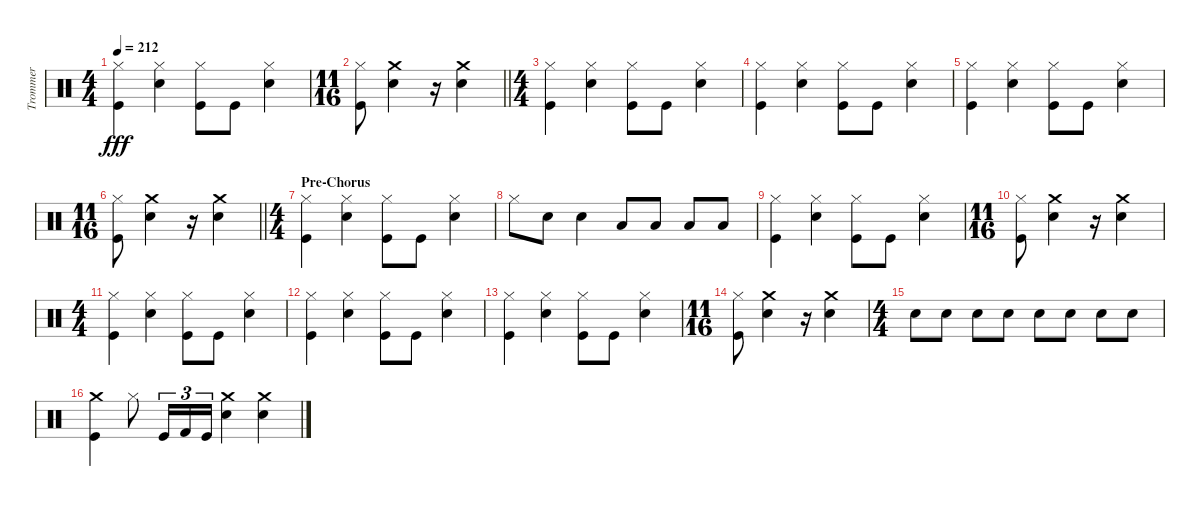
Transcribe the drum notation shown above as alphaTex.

\track ("Trommer" "Trommer") {instrument percussion}
\staff {score}
\articulation defaults
\ts (4 4)
\tempo 212
\clef neutral
\ks c
("Kick (hit)" "Hi-Hat (closed)").4{dy fff} ("Snare (hit) 2" "Hi-Hat (closed)").4 ("Kick (hit)" "Hi-Hat (closed)").8 "Kick (hit)".8 ("Snare (hit) 2" "Hi-Hat (closed)").4 |
\ts (11 16)
\barLineRight lightlight
("Kick (hit)" "Hi-Hat (closed)").8 ("Snare (hit) 2" "Crash medium (hit)").4 r.16 ("Crash medium (hit)" "Snare (hit) 2").4 |
\ts (4 4)
("Kick (hit)" "Hi-Hat (closed)").4 ("Snare (hit) 2" "Hi-Hat (closed)").4 ("Kick (hit)" "Hi-Hat (closed)").8 "Kick (hit)".8 ("Snare (hit) 2" "Hi-Hat (closed)").4 |
("Hi-Hat (closed)" "Kick (hit)").4 ("Snare (hit) 2" "Hi-Hat (closed)").4 ("Kick (hit)" "Hi-Hat (closed)").8 "Kick (hit)".8 ("Snare (hit) 2" "Hi-Hat (closed)").4 |
("Kick (hit)" "Hi-Hat (closed)").4 ("Snare (hit) 2" "Hi-Hat (closed)").4 ("Hi-Hat (closed)" "Kick (hit)").8 "Kick (hit)".8 ("Snare (hit) 2" "Hi-Hat (closed)").4 |
\ts (11 16)
\barLineRight lightlight
("Kick (hit)" "Hi-Hat (closed)").8 ("Crash medium (hit)" "Snare (hit) 2").4 r.16 ("Crash medium (hit)" "Snare (hit) 2").4 |
\ts (4 4)
\section ("" "Pre-Chorus")
("Kick (hit)" "Hi-Hat (closed)").4 ("Snare (hit) 2" "Hi-Hat (closed)").4 ("Kick (hit)" "Hi-Hat (closed)").8 "Kick (hit)".8 ("Snare (hit) 2" "Hi-Hat (closed)").4 |
"Hi-Hat (closed)".8 "Snare (hit) 2".8 "Snare (hit) 2".4 "Low Tom (hit)".8 "Low Tom (hit)".8 "Low Tom (hit)".8 "Low Tom (hit)".8 |
("Kick (hit)" "Hi-Hat (closed)").4 ("Hi-Hat (closed)" "Snare (hit) 2").4 ("Kick (hit)" "Hi-Hat (closed)").8 "Kick (hit)".8 ("Snare (hit) 2" "Hi-Hat (closed)").4 |
\ts (11 16)
("Kick (hit)" "Hi-Hat (closed)").8 ("Crash medium (hit)" "Snare (hit) 2").4 r.16 ("Crash medium (hit)" "Snare (hit) 2").4 |
\ts (4 4)
("Hi-Hat (closed)" "Kick (hit)").4 ("Snare (hit) 2" "Hi-Hat (closed)").4 ("Kick (hit)" "Hi-Hat (closed)").8 "Kick (hit)".8 ("Snare (hit) 2" "Hi-Hat (closed)").4 |
("Kick (hit)" "Hi-Hat (closed)").4 ("Snare (hit) 2" "Hi-Hat (closed)").4 ("Hi-Hat (closed)" "Kick (hit)").8 "Kick (hit)".8 ("Snare (hit) 2" "Hi-Hat (closed)").4 |
("Kick (hit)" "Hi-Hat (closed)").4 ("Snare (hit) 2" "Hi-Hat (closed)").4 ("Kick (hit)" "Hi-Hat (closed)").8 "Kick (hit)".8 ("Hi-Hat (closed)" "Snare (hit) 2").4 |
\ts (11 16)
("Hi-Hat (closed)" "Kick (hit)").8 ("Crash medium (hit)" "Snare (hit) 2").4 r.16 ("Crash medium (hit)" "Snare (hit) 2").4 |
\ts (4 4)
"Snare (hit) 2".8 "Snare (hit) 2".8 "Snare (hit) 2".8 "Snare (hit) 2".8 "Snare (hit) 2".8 "Snare (hit) 2".8 "Snare (hit) 2".8 "Snare (hit) 2".8 |
("Crash medium (hit)" "Kick (hit)").4 "Hi-Hat (closed)".8 "Kick (hit)".16{tu (3 2)} "Kick (hit) 2".16{tu (3 2)} "Kick (hit)".16{tu (3 2)} ("Crash medium (hit)" "Snare (hit) 2").4 ("Crash medium (hit)" "Snare (hit) 2").4
